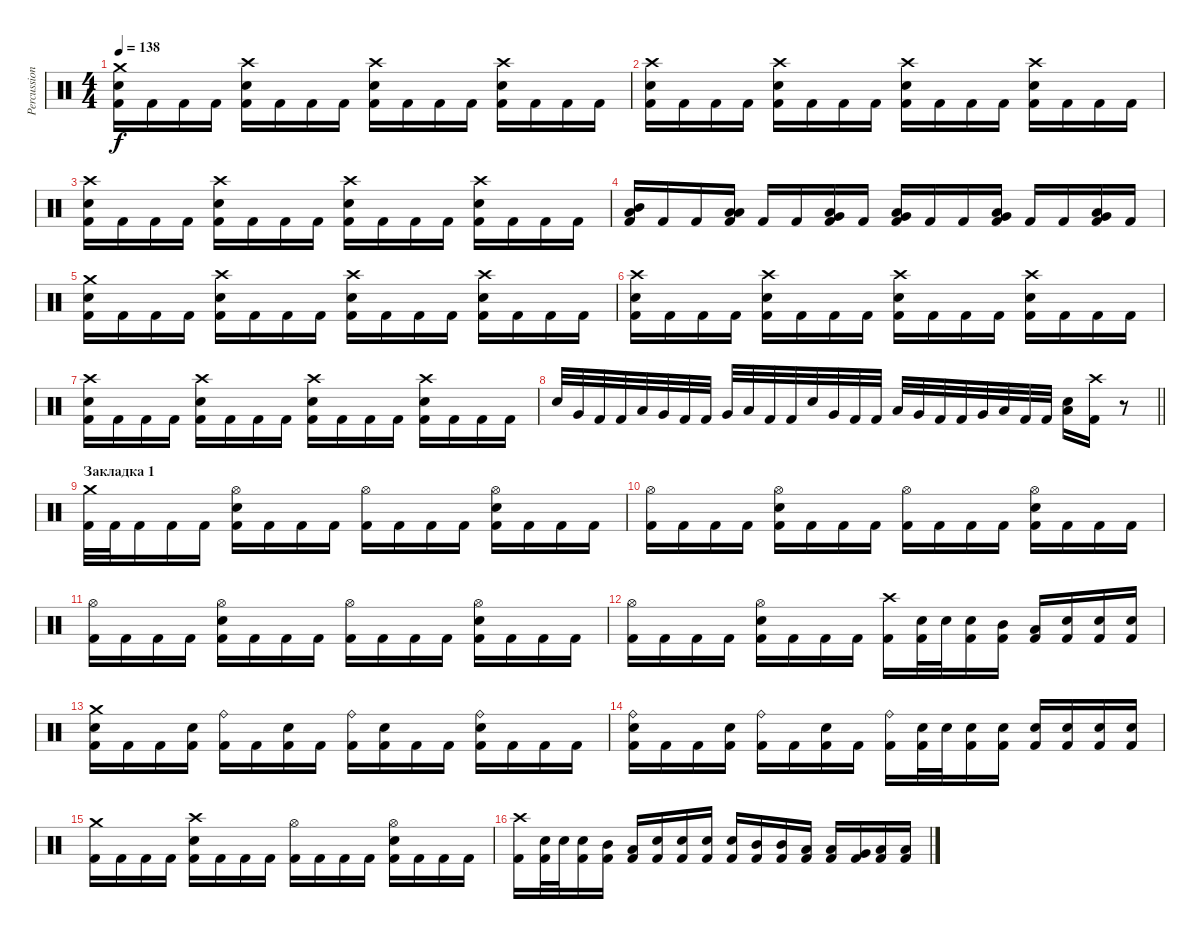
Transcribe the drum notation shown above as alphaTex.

\track ("Percussion" "Percussion") {instrument percussion}
\staff {score}
\articulation defaults
\ts (4 4)
\tempo 138
\clef neutral
\ks c
("Crash medium (hit)" "Electric Snare (hit)" "Kick (hit) 2").16{dy f} "Kick (hit) 2".16 "Kick (hit) 2".16 "Kick (hit) 2".16 ("Crash high (hit)" "Electric Snare (hit)" "Kick (hit) 2").16 "Kick (hit) 2".16 "Kick (hit) 2".16 "Kick (hit) 2".16 ("Crash high (hit)" "Electric Snare (hit)" "Kick (hit) 2").16 "Kick (hit) 2".16 "Kick (hit) 2".16 "Kick (hit) 2".16 ("Crash high (hit)" "Electric Snare (hit)" "Kick (hit) 2").16 "Kick (hit) 2".16 "Kick (hit) 2".16 "Kick (hit) 2".16 |
("Crash high (hit)" "Electric Snare (hit)" "Kick (hit) 2").16 "Kick (hit) 2".16 "Kick (hit) 2".16 "Kick (hit) 2".16 ("Crash high (hit)" "Electric Snare (hit)" "Kick (hit) 2").16 "Kick (hit) 2".16 "Kick (hit) 2".16 "Kick (hit) 2".16 ("Crash high (hit)" "Electric Snare (hit)" "Kick (hit) 2").16 "Kick (hit) 2".16 "Kick (hit) 2".16 "Kick (hit) 2".16 ("Crash high (hit)" "Electric Snare (hit)" "Kick (hit) 2").16 "Kick (hit) 2".16 "Kick (hit) 2".16 "Kick (hit) 2".16 |
("Crash high (hit)" "Electric Snare (hit)" "Kick (hit) 2").16 "Kick (hit) 2".16 "Kick (hit) 2".16 "Kick (hit) 2".16 ("Crash high (hit)" "Electric Snare (hit)" "Kick (hit) 2").16 "Kick (hit) 2".16 "Kick (hit) 2".16 "Kick (hit) 2".16 ("Crash high (hit)" "Electric Snare (hit)" "Kick (hit) 2").16 "Kick (hit) 2".16 "Kick (hit) 2".16 "Kick (hit) 2".16 ("Crash high (hit)" "Electric Snare (hit)" "Kick (hit) 2").16 "Kick (hit) 2".16 "Kick (hit) 2".16 "Kick (hit) 2".16 |
("Mid Tom (hit)" "Low Floor Tom (hit)" "Kick (hit) 2").16 "Kick (hit) 2".16 "Kick (hit) 2".16 ("Low Tom (hit)" "Low Floor Tom (hit)" "Kick (hit) 2").16 "Kick (hit) 2".16 "Kick (hit) 2".16 ("Very Low Tom (hit)" "Low Floor Tom (hit)" "Kick (hit) 2").16 "Kick (hit) 2".16 ("Very Low Tom (hit)" "Low Floor Tom (hit)" "Kick (hit) 2").16 "Kick (hit) 2".16 "Kick (hit) 2".16 ("Very Low Tom (hit)" "Low Floor Tom (hit)" "Kick (hit) 2").16 "Kick (hit) 2".16 "Kick (hit) 2".16 ("Very Low Tom (hit)" "Low Floor Tom (hit)" "Kick (hit) 2").16 "Kick (hit) 2".16 |
("Crash medium (hit)" "Electric Snare (hit)" "Kick (hit) 2").16 "Kick (hit) 2".16 "Kick (hit) 2".16 "Kick (hit) 2".16 ("Crash high (hit)" "Electric Snare (hit)" "Kick (hit) 2").16 "Kick (hit) 2".16 "Kick (hit) 2".16 "Kick (hit) 2".16 ("Crash high (hit)" "Electric Snare (hit)" "Kick (hit) 2").16 "Kick (hit) 2".16 "Kick (hit) 2".16 "Kick (hit) 2".16 ("Crash high (hit)" "Electric Snare (hit)" "Kick (hit) 2").16 "Kick (hit) 2".16 "Kick (hit) 2".16 "Kick (hit) 2".16 |
("Crash high (hit)" "Electric Snare (hit)" "Kick (hit) 2").16 "Kick (hit) 2".16 "Kick (hit) 2".16 "Kick (hit) 2".16 ("Crash high (hit)" "Electric Snare (hit)" "Kick (hit) 2").16 "Kick (hit) 2".16 "Kick (hit) 2".16 "Kick (hit) 2".16 ("Crash high (hit)" "Electric Snare (hit)" "Kick (hit) 2").16 "Kick (hit) 2".16 "Kick (hit) 2".16 "Kick (hit) 2".16 ("Crash high (hit)" "Electric Snare (hit)" "Kick (hit) 2").16 "Kick (hit) 2".16 "Kick (hit) 2".16 "Kick (hit) 2".16 |
("Crash high (hit)" "Electric Snare (hit)" "Kick (hit) 2").16 "Kick (hit) 2".16 "Kick (hit) 2".16 "Kick (hit) 2".16 ("Crash high (hit)" "Electric Snare (hit)" "Kick (hit) 2").16 "Kick (hit) 2".16 "Kick (hit) 2".16 "Kick (hit) 2".16 ("Crash high (hit)" "Electric Snare (hit)" "Kick (hit) 2").16 "Kick (hit) 2".16 "Kick (hit) 2".16 "Kick (hit) 2".16 ("Crash high (hit)" "Electric Snare (hit)" "Kick (hit) 2").16 "Kick (hit) 2".16 "Kick (hit) 2".16 "Kick (hit) 2".16 |
\barLineRight lightlight "Electric Snare (hit)".32 "Very Low Tom (hit)".32 "Kick (hit) 2".32 "Kick (hit) 2".32 "Low Tom (hit)".32 "Very Low Tom (hit)".32 "Kick (hit) 2".32 "Kick (hit) 2".32 "Very Low Tom (hit)".32 "Low Floor Tom (hit)".32 "Kick (hit) 2".32 "Kick (hit) 2".32 "Electric Snare (hit)".32 "Very Low Tom (hit)".32 "Kick (hit) 2".32 "Kick (hit) 2".32 "Low Tom (hit)".32 "Very Low Tom (hit)".32 "Kick (hit) 2".32 "Kick (hit) 2".32 "Very Low Tom (hit)".32 "Low Floor Tom (hit)".32 "Kick (hit) 2".32 "Kick (hit) 2".32
("Electric Snare (hit)" "Low Floor Tom (hit)").16 ("Crash high (hit)" "Kick (hit) 2").16 r.8 |
\section ("" "Закладка 1")
("Crash medium (hit)" "Kick (hit) 2").32 "Kick (hit) 2".32 "Kick (hit) 2".16 "Kick (hit) 2".16 "Kick (hit) 2".16 ("Hi-Hat (open)" "Electric Snare (hit)" "Kick (hit) 2").16 "Kick (hit) 2".16 "Kick (hit) 2".16 "Kick (hit) 2".16 ("Hi-Hat (open)" "Kick (hit) 2").16 "Kick (hit) 2".16 "Kick (hit) 2".16 "Kick (hit) 2".16 ("Hi-Hat (open)" "Electric Snare (hit)" "Kick (hit) 2").16 "Kick (hit) 2".16 "Kick (hit) 2".16 "Kick (hit) 2".16 |
("Hi-Hat (open)" "Kick (hit) 2").16 "Kick (hit) 2".16 "Kick (hit) 2".16 "Kick (hit) 2".16 ("Hi-Hat (open)" "Electric Snare (hit)" "Kick (hit) 2").16 "Kick (hit) 2".16 "Kick (hit) 2".16 "Kick (hit) 2".16 ("Hi-Hat (open)" "Kick (hit) 2").16 "Kick (hit) 2".16 "Kick (hit) 2".16 "Kick (hit) 2".16 ("Hi-Hat (open)" "Electric Snare (hit)" "Kick (hit) 2").16 "Kick (hit) 2".16 "Kick (hit) 2".16 "Kick (hit) 2".16 |
("Hi-Hat (open)" "Kick (hit) 2").16 "Kick (hit) 2".16 "Kick (hit) 2".16 "Kick (hit) 2".16 ("Hi-Hat (open)" "Electric Snare (hit)" "Kick (hit) 2").16 "Kick (hit) 2".16 "Kick (hit) 2".16 "Kick (hit) 2".16 ("Hi-Hat (open)" "Kick (hit) 2").16 "Kick (hit) 2".16 "Kick (hit) 2".16 "Kick (hit) 2".16 ("Hi-Hat (open)" "Electric Snare (hit)" "Kick (hit) 2").16 "Kick (hit) 2".16 "Kick (hit) 2".16 "Kick (hit) 2".16 |
("Hi-Hat (open)" "Kick (hit) 2").16 "Kick (hit) 2".16 "Kick (hit) 2".16 "Kick (hit) 2".16 ("Hi-Hat (open)" "Electric Snare (hit)" "Kick (hit) 2").16 "Kick (hit) 2".16 "Kick (hit) 2".16 "Kick (hit) 2".16 ("Crash high (hit)" "Kick (hit) 2").16 ("Electric Snare (hit)" "Kick (hit) 2").32 "Electric Snare (hit)".32 ("Electric Snare (hit)" "Kick (hit) 2").16 ("Mid Tom (hit)" "Kick (hit) 2").16 ("Low Tom (hit)" "Kick (hit) 2").16 ("Electric Snare (hit)" "Kick (hit) 2").16 ("Electric Snare (hit)" "Kick (hit) 2").16 ("Electric Snare (hit)" "Kick (hit) 2").16 |
("Crash medium (hit)" "Electric Snare (hit)" "Kick (hit) 2").16 "Kick (hit) 2".16 "Kick (hit) 2".16 ("Electric Snare (hit)" "Kick (hit) 2").16 ("Ride (bell)" "Kick (hit) 2").16 "Kick (hit) 2".16 ("Electric Snare (hit)" "Kick (hit) 2").16 "Kick (hit) 2".16 ("Ride (bell)" "Kick (hit) 2").16 ("Electric Snare (hit)" "Kick (hit) 2").16 "Kick (hit) 2".16 "Kick (hit) 2".16 ("Ride (bell)" "Electric Snare (hit)" "Kick (hit) 2").16 "Kick (hit) 2".16 "Kick (hit) 2".16 "Kick (hit) 2".16 |
("Ride (bell)" "Electric Snare (hit)" "Kick (hit) 2").16 "Kick (hit) 2".16 "Kick (hit) 2".16 ("Electric Snare (hit)" "Kick (hit) 2").16 ("Ride (bell)" "Kick (hit) 2").16 "Kick (hit) 2".16 ("Electric Snare (hit)" "Kick (hit) 2").16 "Kick (hit) 2".16 ("Ride (bell)" "Kick (hit) 2").16 ("Electric Snare (hit)" "Kick (hit) 2").32 "Electric Snare (hit)".32 ("Electric Snare (hit)" "Kick (hit) 2").16 ("Electric Snare (hit)" "Kick (hit) 2").16 ("Electric Snare (hit)" "Kick (hit) 2").16 ("Electric Snare (hit)" "Kick (hit) 2").16 ("Electric Snare (hit)" "Kick (hit) 2").16 ("Electric Snare (hit)" "Kick (hit) 2").16 |
("Crash medium (hit)" "Kick (hit) 2").16 "Kick (hit) 2".16 "Kick (hit) 2".16 "Kick (hit) 2".16 ("Crash high (hit)" "Electric Snare (hit)" "Kick (hit) 2").16 "Kick (hit) 2".16 "Kick (hit) 2".16 "Kick (hit) 2".16 ("Hi-Hat (open)" "Kick (hit) 2").16 "Kick (hit) 2".16 "Kick (hit) 2".16 "Kick (hit) 2".16 ("Hi-Hat (open)" "Electric Snare (hit)" "Kick (hit) 2").16 "Kick (hit) 2".16 "Kick (hit) 2".16 "Kick (hit) 2".16 |
("Crash high (hit)" "Kick (hit) 2").16 ("Electric Snare (hit)" "Kick (hit) 2").32 "Electric Snare (hit)".32 ("Electric Snare (hit)" "Kick (hit) 2").16 ("Mid Tom (hit)" "Kick (hit) 2").16 ("Low Tom (hit)" "Kick (hit) 2").16 ("Electric Snare (hit)" "Kick (hit) 2").16 ("Electric Snare (hit)" "Kick (hit) 2").16 ("Electric Snare (hit)" "Kick (hit) 2").16 ("Electric Snare (hit)" "Kick (hit) 2").16 ("Mid Tom (hit)" "Kick (hit) 2").16 ("Mid Tom (hit)" "Kick (hit) 2").16 ("Low Tom (hit)" "Kick (hit) 2").16 ("Low Tom (hit)" "Kick (hit) 2").16 ("Very Low Tom (hit)" "Kick (hit) 2").16 ("Low Floor Tom (hit)" "Kick (hit) 2").16 ("Low Floor Tom (hit)" "Kick (hit) 2").16
